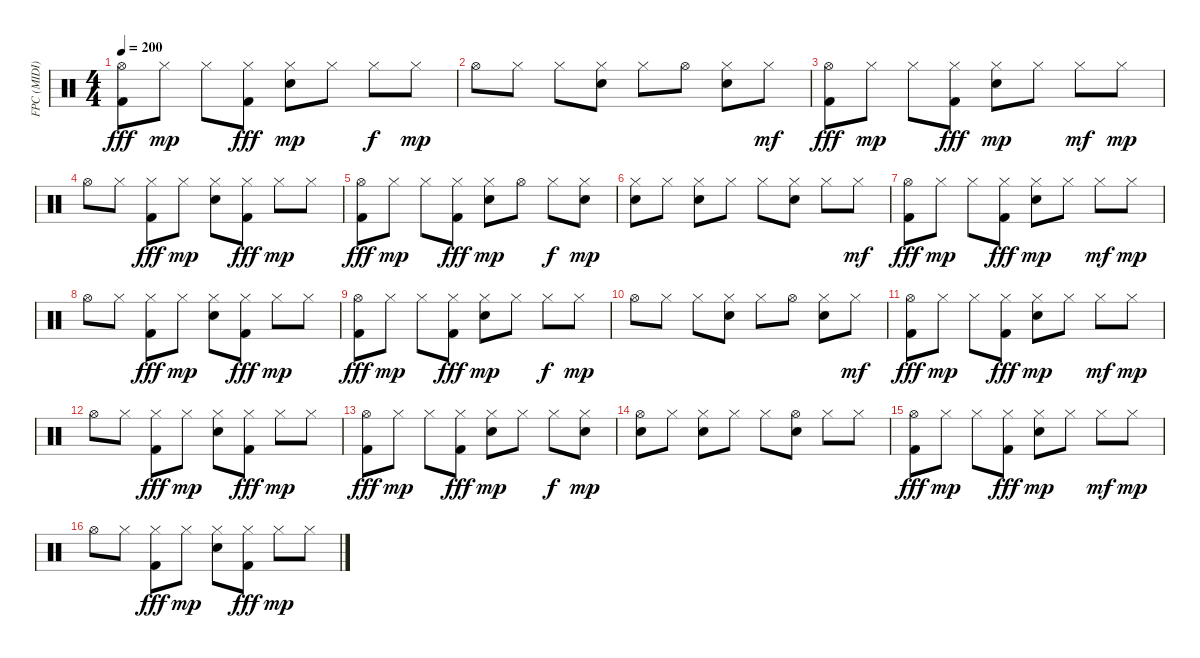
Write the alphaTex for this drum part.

\track ("FPC (MIDI)" "FPC (MIDI)") {instrument percussion}
\staff {score}
\articulation defaults
\ts (4 4)
\tempo 200
\clef neutral
\ks c
("Hi-Hat (open)" "Kick (hit) 2").8{dy fff} "Hi-Hat (closed)".8{dy mp} "Hi-Hat (closed)".8 ("Hi-Hat (closed)" "Kick (hit) 2").8{dy fff} ("Hi-Hat (closed)" "Electric Snare (hit)").8{dy mp} "Hi-Hat (closed)".8 "Hi-Hat (closed)".8{dy f} "Hi-Hat (closed)".8{dy mp} |
"Hi-Hat (open)".8 "Hi-Hat (closed)".8 "Hi-Hat (closed)".8 ("Hi-Hat (closed)" "Electric Snare (hit)").8 "Hi-Hat (closed)".8 "Hi-Hat (open)".8 ("Hi-Hat (closed)" "Electric Snare (hit)").8 "Hi-Hat (closed)".8{dy mf} |
("Hi-Hat (open)" "Kick (hit) 2").8{dy fff} "Hi-Hat (closed)".8{dy mp} "Hi-Hat (closed)".8 ("Hi-Hat (closed)" "Kick (hit) 2").8{dy fff} ("Hi-Hat (closed)" "Electric Snare (hit)").8{dy mp} "Hi-Hat (closed)".8 "Hi-Hat (closed)".8{dy mf} "Hi-Hat (closed)".8{dy mp} |
"Hi-Hat (open)".8 "Hi-Hat (closed)".8 ("Hi-Hat (closed)" "Kick (hit) 2").8{dy fff} "Hi-Hat (closed)".8{dy mp} ("Hi-Hat (closed)" "Electric Snare (hit)").8 ("Hi-Hat (closed)" "Kick (hit) 2").8{dy fff} "Hi-Hat (closed)".8{dy mp} "Hi-Hat (closed)".8 |
("Hi-Hat (open)" "Kick (hit) 2").8{dy fff} "Hi-Hat (closed)".8{dy mp} "Hi-Hat (closed)".8 ("Hi-Hat (closed)" "Kick (hit) 2").8{dy fff} ("Hi-Hat (closed)" "Electric Snare (hit)").8{dy mp} "Hi-Hat (open)".8 "Hi-Hat (closed)".8{dy f} ("Hi-Hat (closed)" "Electric Snare (hit)").8{dy mp} |
("Hi-Hat (closed)" "Electric Snare (hit)").8 "Hi-Hat (closed)".8 ("Hi-Hat (closed)" "Electric Snare (hit)").8 "Hi-Hat (closed)".8 "Hi-Hat (closed)".8 ("Hi-Hat (closed)" "Electric Snare (hit)").8 "Hi-Hat (closed)".8 "Hi-Hat (closed)".8{dy mf} |
("Hi-Hat (open)" "Kick (hit) 2").8{dy fff} "Hi-Hat (closed)".8{dy mp} "Hi-Hat (closed)".8 ("Hi-Hat (closed)" "Kick (hit) 2").8{dy fff} ("Hi-Hat (closed)" "Electric Snare (hit)").8{dy mp} "Hi-Hat (closed)".8 "Hi-Hat (closed)".8{dy mf} "Hi-Hat (closed)".8{dy mp} |
"Hi-Hat (open)".8 "Hi-Hat (closed)".8 ("Hi-Hat (closed)" "Kick (hit) 2").8{dy fff} "Hi-Hat (closed)".8{dy mp} ("Hi-Hat (closed)" "Electric Snare (hit)").8 ("Hi-Hat (closed)" "Kick (hit) 2").8{dy fff} "Hi-Hat (closed)".8{dy mp} "Hi-Hat (closed)".8 |
("Hi-Hat (open)" "Kick (hit) 2").8{dy fff} "Hi-Hat (closed)".8{dy mp} "Hi-Hat (closed)".8 ("Hi-Hat (closed)" "Kick (hit) 2").8{dy fff} ("Hi-Hat (closed)" "Electric Snare (hit)").8{dy mp} "Hi-Hat (closed)".8 "Hi-Hat (closed)".8{dy f} "Hi-Hat (closed)".8{dy mp} |
"Hi-Hat (open)".8 "Hi-Hat (closed)".8 "Hi-Hat (closed)".8 ("Hi-Hat (closed)" "Electric Snare (hit)").8 "Hi-Hat (closed)".8 "Hi-Hat (open)".8 ("Hi-Hat (closed)" "Electric Snare (hit)").8 "Hi-Hat (closed)".8{dy mf} |
("Hi-Hat (open)" "Kick (hit) 2").8{dy fff} "Hi-Hat (closed)".8{dy mp} "Hi-Hat (closed)".8 ("Hi-Hat (closed)" "Kick (hit) 2").8{dy fff} ("Hi-Hat (closed)" "Electric Snare (hit)").8{dy mp} "Hi-Hat (closed)".8 "Hi-Hat (closed)".8{dy mf} "Hi-Hat (closed)".8{dy mp} |
"Hi-Hat (open)".8 "Hi-Hat (closed)".8 ("Hi-Hat (closed)" "Kick (hit) 2").8{dy fff} "Hi-Hat (closed)".8{dy mp} ("Hi-Hat (closed)" "Electric Snare (hit)").8 ("Hi-Hat (closed)" "Kick (hit) 2").8{dy fff} "Hi-Hat (closed)".8{dy mp} "Hi-Hat (closed)".8 |
("Hi-Hat (open)" "Kick (hit) 2").8{dy fff} "Hi-Hat (closed)".8{dy mp} "Hi-Hat (closed)".8 ("Hi-Hat (closed)" "Kick (hit) 2").8{dy fff} ("Hi-Hat (closed)" "Electric Snare (hit)").8{dy mp} "Hi-Hat (closed)".8 "Hi-Hat (closed)".8{dy f} ("Hi-Hat (closed)" "Electric Snare (hit)").8{dy mp} |
("Hi-Hat (open)" "Electric Snare (hit)").8 "Hi-Hat (closed)".8 ("Hi-Hat (closed)" "Electric Snare (hit)").8 "Hi-Hat (closed)".8 "Hi-Hat (closed)".8 ("Hi-Hat (open)" "Electric Snare (hit)").8 "Hi-Hat (closed)".8 "Hi-Hat (closed)".8 |
("Hi-Hat (open)" "Kick (hit) 2").8{dy fff} "Hi-Hat (closed)".8{dy mp} "Hi-Hat (closed)".8 ("Hi-Hat (closed)" "Kick (hit) 2").8{dy fff} ("Hi-Hat (closed)" "Electric Snare (hit)").8{dy mp} "Hi-Hat (closed)".8 "Hi-Hat (closed)".8{dy mf} "Hi-Hat (closed)".8{dy mp} |
"Hi-Hat (open)".8 "Hi-Hat (closed)".8 ("Hi-Hat (closed)" "Kick (hit) 2").8{dy fff} "Hi-Hat (closed)".8{dy mp} ("Hi-Hat (closed)" "Electric Snare (hit)").8 ("Hi-Hat (closed)" "Kick (hit) 2").8{dy fff} "Hi-Hat (closed)".8{dy mp} "Hi-Hat (closed)".8
